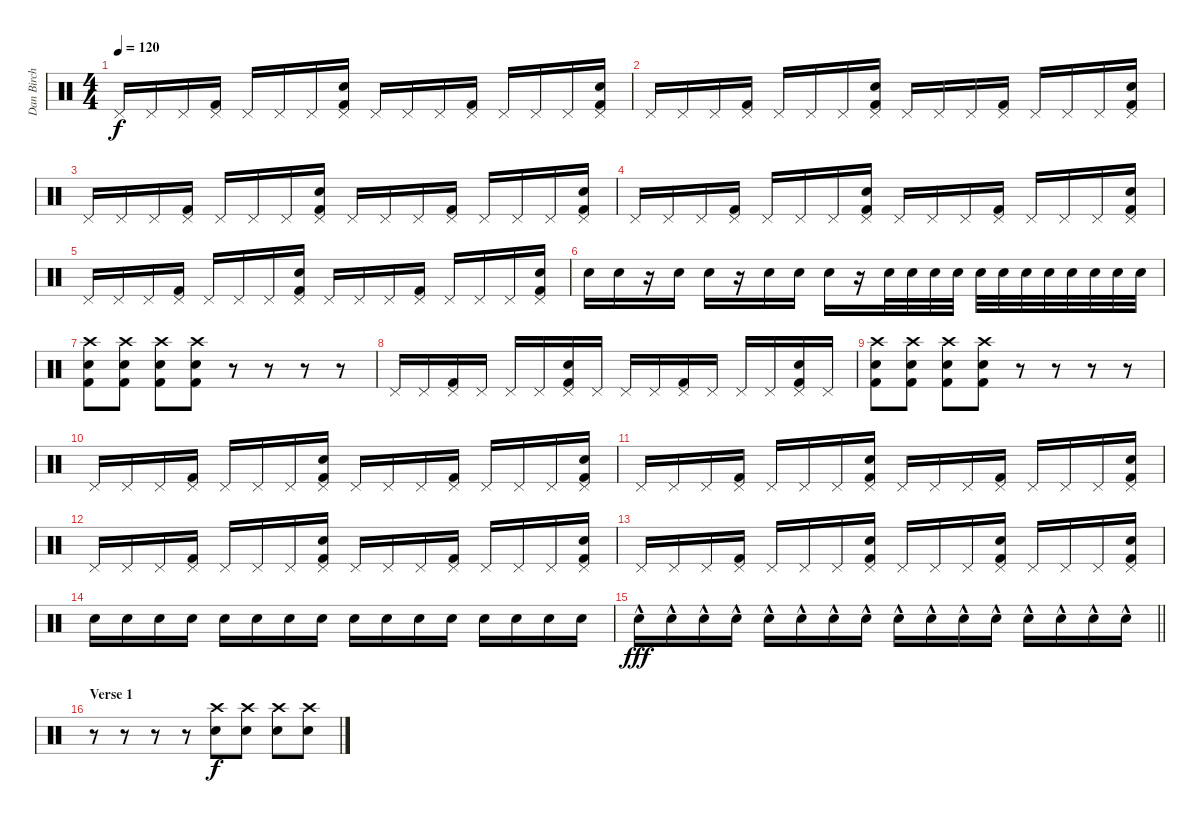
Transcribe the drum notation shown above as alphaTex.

\track ("Dan Birch" "Dan Birch") {instrument percussion}
\staff {score}
\articulation defaults
\ts (4 4)
\tempo 120
\clef neutral
\ks c "Pedal Hi-Hat (hit)".16{dy f} "Pedal Hi-Hat (hit)".16 "Pedal Hi-Hat (hit)".16
("Pedal Hi-Hat (hit)" "Kick (hit) 2").16 "Pedal Hi-Hat (hit)".16 "Pedal Hi-Hat (hit)".16 "Pedal Hi-Hat (hit)".16 ("Pedal Hi-Hat (hit)" "Snare (hit) 2" "Kick (hit) 2").16 "Pedal Hi-Hat (hit)".16 "Pedal Hi-Hat (hit)".16 "Pedal Hi-Hat (hit)".16 ("Pedal Hi-Hat (hit)" "Kick (hit) 2").16 "Pedal Hi-Hat (hit)".16 "Pedal Hi-Hat (hit)".16 "Pedal Hi-Hat (hit)".16 ("Pedal Hi-Hat (hit)" "Snare (hit) 2" "Kick (hit) 2").16 |
"Pedal Hi-Hat (hit)".16 "Pedal Hi-Hat (hit)".16 "Pedal Hi-Hat (hit)".16 ("Pedal Hi-Hat (hit)" "Kick (hit) 2").16 "Pedal Hi-Hat (hit)".16 "Pedal Hi-Hat (hit)".16 "Pedal Hi-Hat (hit)".16 ("Pedal Hi-Hat (hit)" "Snare (hit) 2" "Kick (hit) 2").16 "Pedal Hi-Hat (hit)".16 "Pedal Hi-Hat (hit)".16 "Pedal Hi-Hat (hit)".16 ("Pedal Hi-Hat (hit)" "Kick (hit) 2").16 "Pedal Hi-Hat (hit)".16 "Pedal Hi-Hat (hit)".16 "Pedal Hi-Hat (hit)".16 ("Pedal Hi-Hat (hit)" "Snare (hit) 2" "Kick (hit) 2").16 |
"Pedal Hi-Hat (hit)".16 "Pedal Hi-Hat (hit)".16 "Pedal Hi-Hat (hit)".16 ("Pedal Hi-Hat (hit)" "Kick (hit) 2").16 "Pedal Hi-Hat (hit)".16 "Pedal Hi-Hat (hit)".16 "Pedal Hi-Hat (hit)".16 ("Pedal Hi-Hat (hit)" "Snare (hit) 2" "Kick (hit) 2").16 "Pedal Hi-Hat (hit)".16 "Pedal Hi-Hat (hit)".16 "Pedal Hi-Hat (hit)".16 ("Pedal Hi-Hat (hit)" "Kick (hit) 2").16 "Pedal Hi-Hat (hit)".16 "Pedal Hi-Hat (hit)".16 "Pedal Hi-Hat (hit)".16 ("Pedal Hi-Hat (hit)" "Snare (hit) 2" "Kick (hit) 2").16 |
"Pedal Hi-Hat (hit)".16 "Pedal Hi-Hat (hit)".16 "Pedal Hi-Hat (hit)".16 ("Pedal Hi-Hat (hit)" "Kick (hit) 2").16 "Pedal Hi-Hat (hit)".16 "Pedal Hi-Hat (hit)".16 "Pedal Hi-Hat (hit)".16 ("Pedal Hi-Hat (hit)" "Snare (hit) 2" "Kick (hit) 2").16 "Pedal Hi-Hat (hit)".16 "Pedal Hi-Hat (hit)".16 "Pedal Hi-Hat (hit)".16 ("Pedal Hi-Hat (hit)" "Kick (hit) 2").16 "Pedal Hi-Hat (hit)".16 "Pedal Hi-Hat (hit)".16 "Pedal Hi-Hat (hit)".16 ("Pedal Hi-Hat (hit)" "Snare (hit) 2" "Kick (hit) 2").16 |
"Pedal Hi-Hat (hit)".16 "Pedal Hi-Hat (hit)".16 "Pedal Hi-Hat (hit)".16 ("Pedal Hi-Hat (hit)" "Kick (hit) 2").16 "Pedal Hi-Hat (hit)".16 "Pedal Hi-Hat (hit)".16 "Pedal Hi-Hat (hit)".16 ("Pedal Hi-Hat (hit)" "Snare (hit) 2" "Kick (hit) 2").16 "Pedal Hi-Hat (hit)".16 "Pedal Hi-Hat (hit)".16 "Pedal Hi-Hat (hit)".16 ("Pedal Hi-Hat (hit)" "Kick (hit) 2").16 "Pedal Hi-Hat (hit)".16 "Pedal Hi-Hat (hit)".16 "Pedal Hi-Hat (hit)".16 ("Pedal Hi-Hat (hit)" "Snare (hit) 2" "Kick (hit) 2").16 |
"Snare (hit) 2".16 "Snare (hit) 2".16 r.16 "Snare (hit) 2".16 "Snare (hit) 2".16 r.16 "Snare (hit) 2".16 "Snare (hit) 2".16 "Snare (hit) 2".16 r.16 "Snare (hit) 2".32 "Snare (hit) 2".32 "Snare (hit) 2".32 "Snare (hit) 2".32 "Snare (hit) 2".32 "Snare (hit) 2".32 "Snare (hit) 2".32 "Snare (hit) 2".32 "Snare (hit) 2".32 "Snare (hit) 2".32 "Snare (hit) 2".32 "Snare (hit) 2".32 |
("Crash high (hit)" "Snare (hit) 2" "Kick (hit) 2").8 ("Crash high (hit)" "Snare (hit) 2" "Kick (hit) 2").8 ("Crash high (hit)" "Snare (hit) 2" "Kick (hit) 2").8 ("Crash high (hit)" "Snare (hit) 2" "Kick (hit) 2").8 r.8 r.8 r.8 r.8 |
"Pedal Hi-Hat (hit)".16 "Pedal Hi-Hat (hit)".16 ("Pedal Hi-Hat (hit)" "Kick (hit) 2").16 "Pedal Hi-Hat (hit)".16 "Pedal Hi-Hat (hit)".16 "Pedal Hi-Hat (hit)".16 ("Pedal Hi-Hat (hit)" "Snare (hit) 2" "Kick (hit) 2").16 "Pedal Hi-Hat (hit)".16 "Pedal Hi-Hat (hit)".16 "Pedal Hi-Hat (hit)".16 ("Pedal Hi-Hat (hit)" "Kick (hit) 2").16 "Pedal Hi-Hat (hit)".16 "Pedal Hi-Hat (hit)".16 "Pedal Hi-Hat (hit)".16 ("Pedal Hi-Hat (hit)" "Snare (hit) 2" "Kick (hit) 2").16 "Pedal Hi-Hat (hit)".16 |
("Crash high (hit)" "Snare (hit) 2" "Kick (hit) 2").8 ("Crash high (hit)" "Snare (hit) 2" "Kick (hit) 2").8 ("Crash high (hit)" "Snare (hit) 2" "Kick (hit) 2").8 ("Crash high (hit)" "Snare (hit) 2" "Kick (hit) 2").8 r.8 r.8 r.8 r.8 |
"Pedal Hi-Hat (hit)".16 "Pedal Hi-Hat (hit)".16 "Pedal Hi-Hat (hit)".16 ("Pedal Hi-Hat (hit)" "Kick (hit) 2").16 "Pedal Hi-Hat (hit)".16 "Pedal Hi-Hat (hit)".16 "Pedal Hi-Hat (hit)".16 ("Pedal Hi-Hat (hit)" "Snare (hit) 2" "Kick (hit) 2").16 "Pedal Hi-Hat (hit)".16 "Pedal Hi-Hat (hit)".16 "Pedal Hi-Hat (hit)".16 ("Pedal Hi-Hat (hit)" "Kick (hit) 2").16 "Pedal Hi-Hat (hit)".16 "Pedal Hi-Hat (hit)".16 "Pedal Hi-Hat (hit)".16 ("Pedal Hi-Hat (hit)" "Snare (hit) 2" "Kick (hit) 2").16 |
"Pedal Hi-Hat (hit)".16 "Pedal Hi-Hat (hit)".16 "Pedal Hi-Hat (hit)".16 ("Pedal Hi-Hat (hit)" "Kick (hit) 2").16 "Pedal Hi-Hat (hit)".16 "Pedal Hi-Hat (hit)".16 "Pedal Hi-Hat (hit)".16 ("Pedal Hi-Hat (hit)" "Snare (hit) 2" "Kick (hit) 2").16 "Pedal Hi-Hat (hit)".16 "Pedal Hi-Hat (hit)".16 "Pedal Hi-Hat (hit)".16 ("Pedal Hi-Hat (hit)" "Kick (hit) 2").16 "Pedal Hi-Hat (hit)".16 "Pedal Hi-Hat (hit)".16 "Pedal Hi-Hat (hit)".16 ("Pedal Hi-Hat (hit)" "Snare (hit) 2" "Kick (hit) 2").16 |
"Pedal Hi-Hat (hit)".16 "Pedal Hi-Hat (hit)".16 "Pedal Hi-Hat (hit)".16 ("Pedal Hi-Hat (hit)" "Kick (hit) 2").16 "Pedal Hi-Hat (hit)".16 "Pedal Hi-Hat (hit)".16 "Pedal Hi-Hat (hit)".16 ("Pedal Hi-Hat (hit)" "Snare (hit) 2" "Kick (hit) 2").16 "Pedal Hi-Hat (hit)".16 "Pedal Hi-Hat (hit)".16 "Pedal Hi-Hat (hit)".16 ("Pedal Hi-Hat (hit)" "Kick (hit) 2").16 "Pedal Hi-Hat (hit)".16 "Pedal Hi-Hat (hit)".16 "Pedal Hi-Hat (hit)".16 ("Pedal Hi-Hat (hit)" "Snare (hit) 2" "Kick (hit) 2").16 |
"Pedal Hi-Hat (hit)".16 "Pedal Hi-Hat (hit)".16 "Pedal Hi-Hat (hit)".16 ("Pedal Hi-Hat (hit)" "Kick (hit) 2").16 "Pedal Hi-Hat (hit)".16 "Pedal Hi-Hat (hit)".16 "Pedal Hi-Hat (hit)".16 ("Pedal Hi-Hat (hit)" "Snare (hit) 2" "Kick (hit) 2").16 "Pedal Hi-Hat (hit)".16 "Pedal Hi-Hat (hit)".16 "Pedal Hi-Hat (hit)".16 ("Pedal Hi-Hat (hit)" "Snare (hit) 2" "Kick (hit) 2").16 "Pedal Hi-Hat (hit)".16 "Pedal Hi-Hat (hit)".16 "Pedal Hi-Hat (hit)".16 ("Pedal Hi-Hat (hit)" "Snare (hit) 2" "Kick (hit) 2").16 |
"Snare (hit) 2".16 "Snare (hit) 2".16 "Snare (hit) 2".16 "Snare (hit) 2".16 "Snare (hit) 2".16 "Snare (hit) 2".16 "Snare (hit) 2".16 "Snare (hit) 2".16 "Snare (hit) 2".16 "Snare (hit) 2".16 "Snare (hit) 2".16 "Snare (hit) 2".16 "Snare (hit) 2".16 "Snare (hit) 2".16 "Snare (hit) 2".16 "Snare (hit) 2".16 |
\barLineRight lightlight "Snare (hit) 2"{hac}.16{dy fff} "Snare (hit) 2"{hac}.16 "Snare (hit) 2"{hac}.16 "Snare (hit) 2"{hac}.16 "Snare (hit) 2"{hac}.16 "Snare (hit) 2"{hac}.16 "Snare (hit) 2"{hac}.16 "Snare (hit) 2"{hac}.16 "Snare (hit) 2"{hac}.16 "Snare (hit) 2"{hac}.16 "Snare (hit) 2"{hac}.16 "Snare (hit) 2"{hac}.16 "Snare (hit) 2"{hac}.16 "Snare (hit) 2"{hac}.16 "Snare (hit) 2"{hac}.16 "Snare (hit) 2"{hac}.16
|
\section ("" "Verse 1")
r.8 r.8 r.8 r.8 ("Crash high (hit)" "Snare (hit) 2").8{dy f} ("Crash high (hit)" "Snare (hit) 2").8 ("Crash high (hit)" "Snare (hit) 2").8 ("Crash high (hit)" "Snare (hit) 2").8
